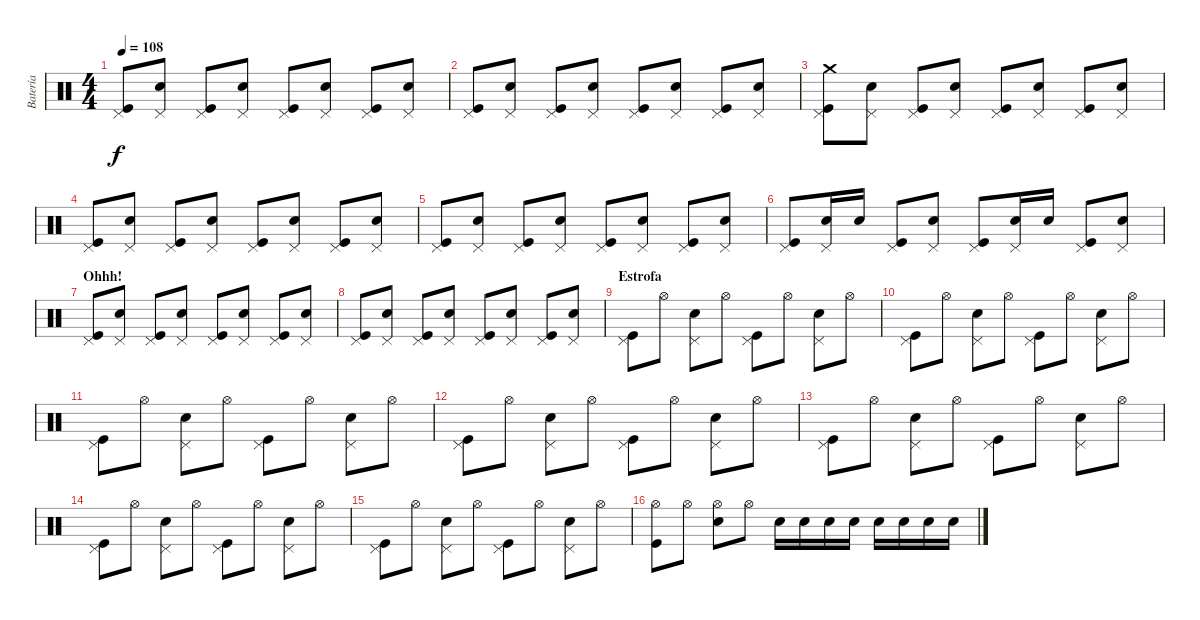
\track ("Batería" "Batería") {instrument percussion}
\staff {score}
\articulation defaults
\ts (4 4)
\tempo 108
\clef neutral
\ks c
("Pedal Hi-Hat (hit)" "Kick (hit)").8{dy f} ("Pedal Hi-Hat (hit)" "Electric Snare (hit)").8 ("Pedal Hi-Hat (hit)" "Kick (hit)").8 ("Pedal Hi-Hat (hit)" "Electric Snare (hit)").8 ("Pedal Hi-Hat (hit)" "Kick (hit)").8 ("Pedal Hi-Hat (hit)" "Electric Snare (hit)").8 ("Pedal Hi-Hat (hit)" "Kick (hit)").8 ("Pedal Hi-Hat (hit)" "Electric Snare (hit)").8 |
("Pedal Hi-Hat (hit)" "Kick (hit)").8 ("Pedal Hi-Hat (hit)" "Electric Snare (hit)").8 ("Pedal Hi-Hat (hit)" "Kick (hit)").8 ("Pedal Hi-Hat (hit)" "Electric Snare (hit)").8 ("Pedal Hi-Hat (hit)" "Kick (hit)").8 ("Pedal Hi-Hat (hit)" "Electric Snare (hit)").8 ("Pedal Hi-Hat (hit)" "Kick (hit)").8 ("Pedal Hi-Hat (hit)" "Electric Snare (hit)").8 |
("Pedal Hi-Hat (hit)" "Crash medium (hit)" "Kick (hit)").8 ("Pedal Hi-Hat (hit)" "Electric Snare (hit)").8 ("Pedal Hi-Hat (hit)" "Kick (hit)").8 ("Pedal Hi-Hat (hit)" "Electric Snare (hit)").8 ("Pedal Hi-Hat (hit)" "Kick (hit)").8 ("Pedal Hi-Hat (hit)" "Electric Snare (hit)").8 ("Pedal Hi-Hat (hit)" "Kick (hit)").8 ("Pedal Hi-Hat (hit)" "Electric Snare (hit)").8 |
("Pedal Hi-Hat (hit)" "Kick (hit)").8 ("Pedal Hi-Hat (hit)" "Electric Snare (hit)").8 ("Pedal Hi-Hat (hit)" "Kick (hit)").8 ("Pedal Hi-Hat (hit)" "Electric Snare (hit)").8 ("Pedal Hi-Hat (hit)" "Kick (hit)").8 ("Pedal Hi-Hat (hit)" "Electric Snare (hit)").8 ("Pedal Hi-Hat (hit)" "Kick (hit)").8 ("Pedal Hi-Hat (hit)" "Electric Snare (hit)").8 |
("Pedal Hi-Hat (hit)" "Kick (hit)").8 ("Pedal Hi-Hat (hit)" "Electric Snare (hit)").8 ("Pedal Hi-Hat (hit)" "Kick (hit)").8 ("Pedal Hi-Hat (hit)" "Electric Snare (hit)").8 ("Pedal Hi-Hat (hit)" "Kick (hit)").8 ("Pedal Hi-Hat (hit)" "Electric Snare (hit)").8 ("Pedal Hi-Hat (hit)" "Kick (hit)").8 ("Pedal Hi-Hat (hit)" "Electric Snare (hit)").8 |
("Pedal Hi-Hat (hit)" "Kick (hit)").8 ("Pedal Hi-Hat (hit)" "Electric Snare (hit)").16 "Electric Snare (hit)".16 ("Pedal Hi-Hat (hit)" "Kick (hit)").8 ("Pedal Hi-Hat (hit)" "Electric Snare (hit)").8 ("Pedal Hi-Hat (hit)" "Kick (hit)").8 ("Pedal Hi-Hat (hit)" "Electric Snare (hit)").16 "Electric Snare (hit)".16 ("Pedal Hi-Hat (hit)" "Kick (hit)").8 ("Pedal Hi-Hat (hit)" "Electric Snare (hit)").8 |
\section ("" "Ohhh!")
("Pedal Hi-Hat (hit)" "Kick (hit)").8 ("Pedal Hi-Hat (hit)" "Electric Snare (hit)").8 ("Pedal Hi-Hat (hit)" "Kick (hit)").8 ("Pedal Hi-Hat (hit)" "Electric Snare (hit)").8 ("Pedal Hi-Hat (hit)" "Kick (hit)").8 ("Pedal Hi-Hat (hit)" "Electric Snare (hit)").8 ("Pedal Hi-Hat (hit)" "Kick (hit)").8 ("Pedal Hi-Hat (hit)" "Electric Snare (hit)").8 |
("Pedal Hi-Hat (hit)" "Kick (hit)").8 ("Pedal Hi-Hat (hit)" "Electric Snare (hit)").8 ("Pedal Hi-Hat (hit)" "Kick (hit)").8 ("Pedal Hi-Hat (hit)" "Electric Snare (hit)").8 ("Pedal Hi-Hat (hit)" "Kick (hit)").8 ("Pedal Hi-Hat (hit)" "Electric Snare (hit)").8 ("Pedal Hi-Hat (hit)" "Kick (hit)").8 ("Pedal Hi-Hat (hit)" "Electric Snare (hit)").8 |
\section ("" "Estrofa ")
("Pedal Hi-Hat (hit)" "Kick (hit)").8 "Hi-Hat (open)".8 ("Pedal Hi-Hat (hit)" "Electric Snare (hit)").8 "Hi-Hat (open)".8 ("Pedal Hi-Hat (hit)" "Kick (hit)").8 "Hi-Hat (open)".8 ("Pedal Hi-Hat (hit)" "Electric Snare (hit)").8 "Hi-Hat (open)".8 |
("Pedal Hi-Hat (hit)" "Kick (hit)").8 "Hi-Hat (open)".8 ("Pedal Hi-Hat (hit)" "Electric Snare (hit)").8 "Hi-Hat (open)".8 ("Pedal Hi-Hat (hit)" "Kick (hit)").8 "Hi-Hat (open)".8 ("Pedal Hi-Hat (hit)" "Electric Snare (hit)").8 "Hi-Hat (open)".8 |
("Pedal Hi-Hat (hit)" "Kick (hit)").8 "Hi-Hat (open)".8 ("Pedal Hi-Hat (hit)" "Electric Snare (hit)").8 "Hi-Hat (open)".8 ("Pedal Hi-Hat (hit)" "Kick (hit)").8 "Hi-Hat (open)".8 ("Pedal Hi-Hat (hit)" "Electric Snare (hit)").8 "Hi-Hat (open)".8 |
("Pedal Hi-Hat (hit)" "Kick (hit)").8 "Hi-Hat (open)".8 ("Pedal Hi-Hat (hit)" "Electric Snare (hit)").8 "Hi-Hat (open)".8 ("Pedal Hi-Hat (hit)" "Kick (hit)").8 "Hi-Hat (open)".8 ("Pedal Hi-Hat (hit)" "Electric Snare (hit)").8 "Hi-Hat (open)".8 |
("Pedal Hi-Hat (hit)" "Kick (hit)").8 "Hi-Hat (open)".8 ("Pedal Hi-Hat (hit)" "Electric Snare (hit)").8 "Hi-Hat (open)".8 ("Pedal Hi-Hat (hit)" "Kick (hit)").8 "Hi-Hat (open)".8 ("Pedal Hi-Hat (hit)" "Electric Snare (hit)").8 "Hi-Hat (open)".8 |
("Pedal Hi-Hat (hit)" "Kick (hit)").8 "Hi-Hat (open)".8 ("Pedal Hi-Hat (hit)" "Electric Snare (hit)").8 "Hi-Hat (open)".8 ("Pedal Hi-Hat (hit)" "Kick (hit)").8 "Hi-Hat (open)".8 ("Pedal Hi-Hat (hit)" "Electric Snare (hit)").8 "Hi-Hat (open)".8 |
("Pedal Hi-Hat (hit)" "Kick (hit)").8 "Hi-Hat (open)".8 ("Pedal Hi-Hat (hit)" "Electric Snare (hit)").8 "Hi-Hat (open)".8 ("Pedal Hi-Hat (hit)" "Kick (hit)").8 "Hi-Hat (open)".8 ("Pedal Hi-Hat (hit)" "Electric Snare (hit)").8 "Hi-Hat (open)".8 |
("Hi-Hat (open)" "Kick (hit)").8 "Hi-Hat (open)".8 ("Hi-Hat (open)" "Electric Snare (hit)").8 "Hi-Hat (open)".8 "Electric Snare (hit)".16 "Electric Snare (hit)".16 "Electric Snare (hit)".16 "Electric Snare (hit)".16 "Electric Snare (hit)".16 "Electric Snare (hit)".16 "Electric Snare (hit)".16 "Electric Snare (hit)".16
